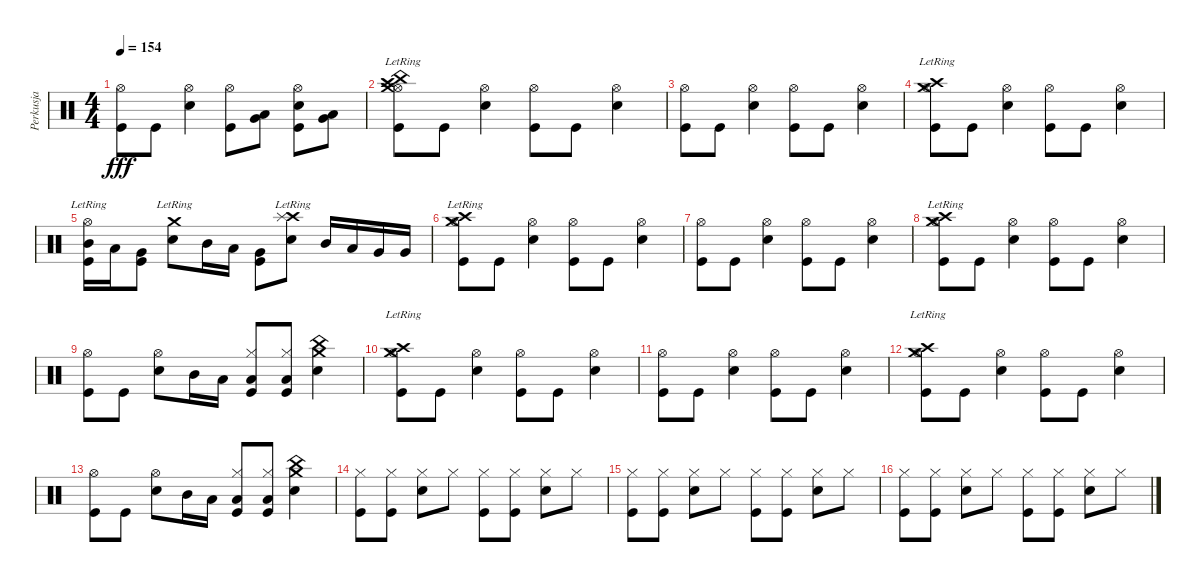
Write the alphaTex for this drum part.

\track ("Perkusja" "Perkusja") {instrument percussion}
\staff {score}
\articulation defaults
\ts (4 4)
\tempo 154
\clef neutral
\ks c
("Hi-Hat (open)" "Kick (hit)").8{dy fff} "Kick (hit)".8 ("Hi-Hat (open)" "Snare (hit) 2").4 ("Hi-Hat (open)" "Kick (hit)").8 ("Very Low Tom (hit)" "Low Tom (hit)").8 ("Hi-Hat (open)" "Snare (hit) 2" "Kick (hit)").8 ("Very Low Tom (hit)" "Low Tom (hit)").8 |
("Crash high (hit)"{lr} "Hi-Hat (open)" "Crash medium (hit)"{lr} "Kick (hit)" "China (hit)").8 "Kick (hit)".8 ("Hi-Hat (open)" "Snare (hit) 2").4 ("Hi-Hat (open)" "Kick (hit)").8 "Kick (hit)".8 ("Hi-Hat (open)" "Snare (hit) 2").4 |
("Hi-Hat (open)" "Kick (hit)").8 "Kick (hit)".8 ("Hi-Hat (open)" "Snare (hit) 2").4 ("Hi-Hat (open)" "Kick (hit)").8 "Kick (hit)".8 ("Hi-Hat (open)" "Snare (hit) 2").4 |
("Crash high (hit)"{lr} "Hi-Hat (open)" "Crash medium (hit)"{lr} "Kick (hit)").8 "Kick (hit)".8 ("Hi-Hat (open)" "Snare (hit) 2").4 ("Hi-Hat (open)" "Kick (hit)").8 "Kick (hit)".8 ("Hi-Hat (open)" "Snare (hit) 2").4 |
("Hi-Hat (open)"{lr} "Mid Tom (hit)" "Kick (hit)").16 "Low Tom (hit)".16 ("Very Low Tom (hit)" "Kick (hit)").8 ("Crash medium (hit)"{lr} "Snare (hit) 2").8 "Mid Tom (hit)".16 "Low Tom (hit)".16 ("Very Low Tom (hit)" "Kick (hit)").8 ("Crash high (hit)"{lr} "Splash (hit)"{lr} "Snare (hit) 2").8 "Mid Tom (hit)".16 "Low Tom (hit)".16 "Very Low Tom (hit)".16 "Very Low Tom (hit)".16 |
("Crash high (hit)"{lr} "Hi-Hat (open)" "Crash medium (hit)"{lr} "Kick (hit)").8 "Kick (hit)".8 ("Hi-Hat (open)" "Snare (hit) 2").4 ("Hi-Hat (open)" "Kick (hit)").8 "Kick (hit)".8 ("Hi-Hat (open)" "Snare (hit) 2").4 |
("Hi-Hat (open)" "Kick (hit)").8 "Kick (hit)".8 ("Hi-Hat (open)" "Snare (hit) 2").4 ("Hi-Hat (open)" "Kick (hit)").8 "Kick (hit)".8 ("Hi-Hat (open)" "Snare (hit) 2").4 |
("Crash high (hit)"{lr} "Hi-Hat (open)" "Crash medium (hit)"{lr} "Kick (hit)").8 "Kick (hit)".8 ("Hi-Hat (open)" "Snare (hit) 2").4 ("Hi-Hat (open)" "Kick (hit)").8 "Kick (hit)".8 ("Hi-Hat (open)" "Snare (hit) 2").4 |
("Hi-Hat (open)" "Kick (hit)").8 "Kick (hit)".8 ("Hi-Hat (open)" "Snare (hit) 2").8 "Mid Tom (hit)".16 "Low Tom (hit)".16 ("Hi-Hat (closed)" "Low Floor Tom (hit)" "Kick (hit)").8 ("Hi-Hat (closed)" "Low Floor Tom (hit)" "Kick (hit)").8 ("Crash medium (hit)" "China (hit)" "Snare (hit) 2").4 |
("Crash high (hit)"{lr} "Hi-Hat (open)" "Crash medium (hit)"{lr} "Kick (hit)").8 "Kick (hit)".8 ("Hi-Hat (open)" "Snare (hit) 2").4 ("Hi-Hat (open)" "Kick (hit)").8 "Kick (hit)".8 ("Hi-Hat (open)" "Snare (hit) 2").4 |
("Hi-Hat (open)" "Kick (hit)").8 "Kick (hit)".8 ("Hi-Hat (open)" "Snare (hit) 2").4 ("Hi-Hat (open)" "Kick (hit)").8 "Kick (hit)".8 ("Hi-Hat (open)" "Snare (hit) 2").4 |
("Crash high (hit)"{lr} "Hi-Hat (open)" "Crash medium (hit)"{lr} "Kick (hit)").8 "Kick (hit)".8 ("Hi-Hat (open)" "Snare (hit) 2").4 ("Hi-Hat (open)" "Kick (hit)").8 "Kick (hit)".8 ("Hi-Hat (open)" "Snare (hit) 2").4 |
("Hi-Hat (open)" "Kick (hit)").8 "Kick (hit)".8 ("Hi-Hat (open)" "Snare (hit) 2").8 "Mid Tom (hit)".16 "Low Tom (hit)".16 ("Hi-Hat (closed)" "Low Floor Tom (hit)" "Kick (hit)").8 ("Hi-Hat (closed)" "Low Floor Tom (hit)" "Kick (hit)").8 ("Crash medium (hit)" "China (hit)" "Snare (hit) 2").4 |
("Hi-Hat (closed)" "Kick (hit)").8 ("Hi-Hat (closed)" "Kick (hit)").8 ("Hi-Hat (closed)" "Snare (hit) 2").8 "Hi-Hat (closed)".8 ("Hi-Hat (closed)" "Kick (hit)").8 ("Hi-Hat (closed)" "Kick (hit)").8 ("Hi-Hat (closed)" "Snare (hit) 2").8 "Hi-Hat (closed)".8 |
("Hi-Hat (closed)" "Kick (hit)").8 ("Hi-Hat (closed)" "Kick (hit)").8 ("Hi-Hat (closed)" "Snare (hit) 2").8 "Hi-Hat (closed)".8 ("Hi-Hat (closed)" "Kick (hit)").8 ("Hi-Hat (closed)" "Kick (hit)").8 ("Hi-Hat (closed)" "Snare (hit) 2").8 "Hi-Hat (closed)".8 |
("Hi-Hat (closed)" "Kick (hit)").8 ("Hi-Hat (closed)" "Kick (hit)").8 ("Hi-Hat (closed)" "Snare (hit) 2").8 "Hi-Hat (closed)".8 ("Hi-Hat (closed)" "Kick (hit)").8 ("Hi-Hat (closed)" "Kick (hit)").8 ("Hi-Hat (closed)" "Snare (hit) 2").8 "Hi-Hat (closed)".8
